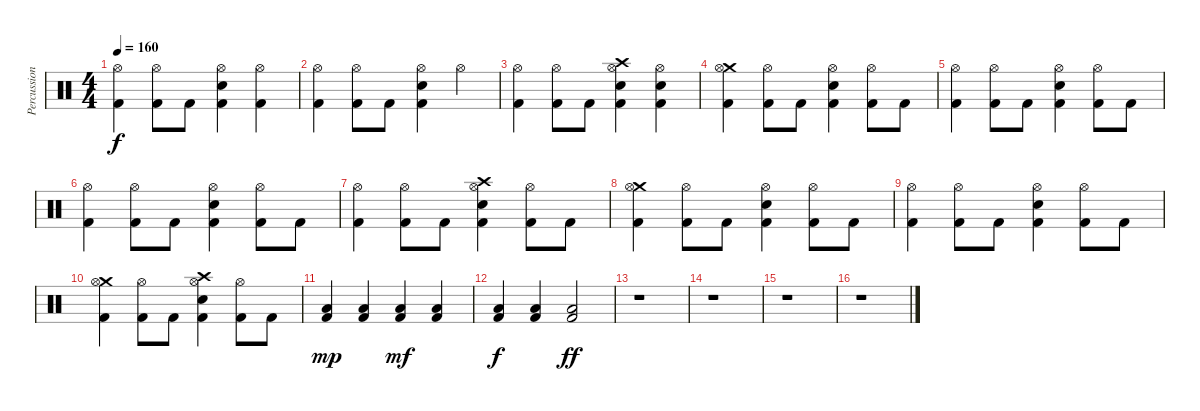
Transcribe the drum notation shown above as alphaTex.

\track ("Percussion" "Percussion") {instrument percussion}
\staff {score}
\articulation defaults
\ts (4 4)
\tempo 160
\clef neutral
\ks c
("Hi-Hat (open)" "Kick (hit) 2").4{dy f} ("Hi-Hat (open)" "Kick (hit) 2").8 "Kick (hit) 2".8 ("Hi-Hat (open)" "Electric Snare (hit)" "Kick (hit) 2").4 ("Hi-Hat (open)" "Kick (hit) 2").4 |
("Hi-Hat (open)" "Kick (hit) 2").4 ("Hi-Hat (open)" "Kick (hit) 2").8 "Kick (hit) 2".8 ("Hi-Hat (open)" "Electric Snare (hit)" "Kick (hit) 2").4 "Hi-Hat (open)".4 |
("Hi-Hat (open)" "Kick (hit) 2").4 ("Hi-Hat (open)" "Kick (hit) 2").8 "Kick (hit) 2".8 ("Crash high (hit)" "Hi-Hat (open)" "Electric Snare (hit)" "Kick (hit) 2").4 ("Hi-Hat (open)" "Electric Snare (hit)" "Kick (hit) 2").4 |
("Crash medium (hit)" "Hi-Hat (open)" "Kick (hit) 2").4 ("Hi-Hat (open)" "Kick (hit) 2").8 "Kick (hit) 2".8 ("Hi-Hat (open)" "Electric Snare (hit)" "Kick (hit) 2").4 ("Hi-Hat (open)" "Kick (hit) 2").8 "Kick (hit) 2".8 |
("Hi-Hat (open)" "Kick (hit) 2").4 ("Hi-Hat (open)" "Kick (hit) 2").8 "Kick (hit) 2".8 ("Hi-Hat (open)" "Electric Snare (hit)" "Kick (hit) 2").4 ("Hi-Hat (open)" "Kick (hit) 2").8 "Kick (hit) 2".8 |
("Hi-Hat (open)" "Kick (hit) 2").4 ("Hi-Hat (open)" "Kick (hit) 2").8 "Kick (hit) 2".8 ("Hi-Hat (open)" "Electric Snare (hit)" "Kick (hit) 2").4 ("Hi-Hat (open)" "Kick (hit) 2").8 "Kick (hit) 2".8 |
("Hi-Hat (open)" "Kick (hit) 2").4 ("Hi-Hat (open)" "Kick (hit) 2").8 "Kick (hit) 2".8 ("Crash high (hit)" "Hi-Hat (open)" "Electric Snare (hit)" "Kick (hit) 2").4 ("Hi-Hat (open)" "Kick (hit) 2").8 "Kick (hit) 2".8 |
("Crash medium (hit)" "Hi-Hat (open)" "Kick (hit) 2").4 ("Hi-Hat (open)" "Kick (hit) 2").8 "Kick (hit) 2".8 ("Hi-Hat (open)" "Electric Snare (hit)" "Kick (hit) 2").4 ("Hi-Hat (open)" "Kick (hit) 2").8 "Kick (hit) 2".8 |
("Hi-Hat (open)" "Kick (hit) 2").4 ("Hi-Hat (open)" "Kick (hit) 2").8 "Kick (hit) 2".8 ("Hi-Hat (open)" "Electric Snare (hit)" "Kick (hit) 2").4 ("Hi-Hat (open)" "Kick (hit) 2").8 "Kick (hit) 2".8 |
("Crash medium (hit)" "Hi-Hat (open)" "Kick (hit) 2").4 ("Hi-Hat (open)" "Kick (hit) 2").8 "Kick (hit) 2".8 ("Crash high (hit)" "Hi-Hat (open)" "Electric Snare (hit)" "Kick (hit) 2").4 ("Hi-Hat (open)" "Kick (hit) 2").8 "Kick (hit) 2".8 |
("Low Floor Tom (hit)" "Kick (hit) 2").4{dy mp} ("Low Floor Tom (hit)" "Kick (hit) 2").4 ("Low Floor Tom (hit)" "Kick (hit) 2").4{dy mf} ("Low Floor Tom (hit)" "Kick (hit) 2").4 |
("Low Floor Tom (hit)" "Kick (hit) 2").4{dy f} ("Low Floor Tom (hit)" "Kick (hit) 2").4 ("Low Floor Tom (hit)" "Kick (hit) 2").2{dy ff} |
r.1 |
r.1 |
r.1 |
r.1
